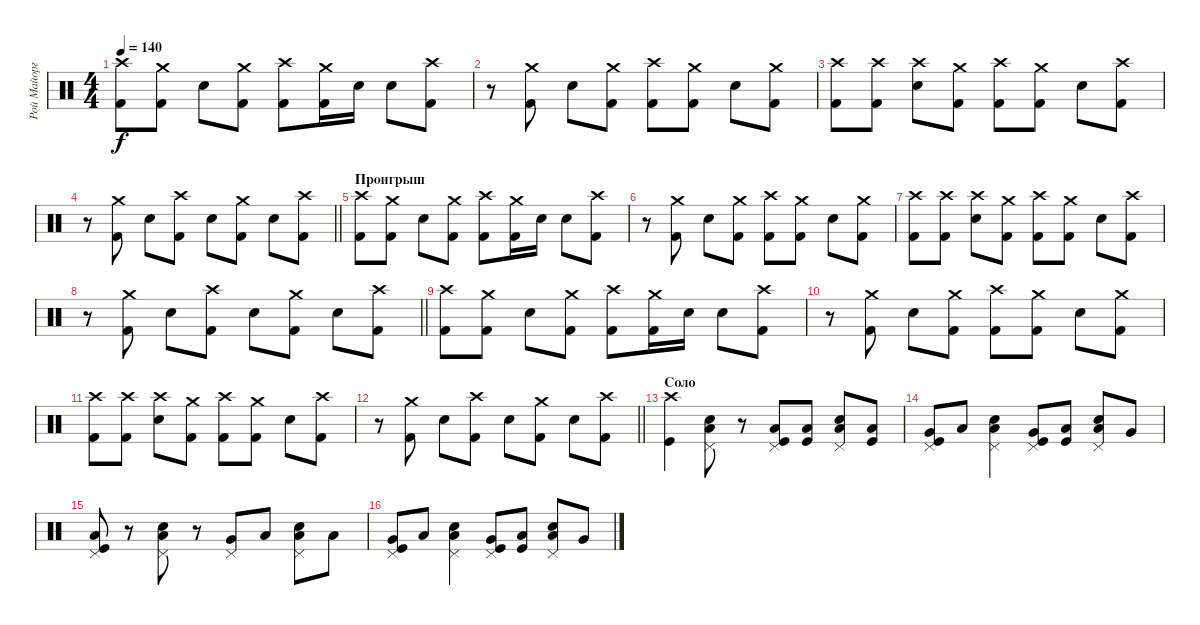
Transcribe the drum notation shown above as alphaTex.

\track ("Рой Майорга" "Рой Майорг") {instrument percussion}
\staff {score}
\articulation defaults
\ts (4 4)
\tempo 140
\clef neutral
\ks c
("Crash high (hit)" "Kick (hit) 2").8{dy f} ("Crash medium (hit)" "Kick (hit) 2").8 "Snare (hit) 2".8 ("Crash medium (hit)" "Kick (hit) 2").8 ("Crash high (hit)" "Kick (hit) 2").8 ("Crash medium (hit)" "Kick (hit) 2").16 "Snare (hit) 2".16 "Snare (hit) 2".8 ("Crash high (hit)" "Kick (hit) 2").8 |
r.8 ("Crash medium (hit)" "Kick (hit) 2").8 "Snare (hit) 2".8 ("Crash medium (hit)" "Kick (hit) 2").8 ("Crash high (hit)" "Kick (hit) 2").8 ("Crash medium (hit)" "Kick (hit) 2").8 "Snare (hit) 2".8 ("Crash medium (hit)" "Kick (hit) 2").8 |
("Crash high (hit)" "Kick (hit) 2").8 ("Crash high (hit)" "Kick (hit) 2").8 ("Crash high (hit)" "Snare (hit) 2").8 ("Crash medium (hit)" "Kick (hit) 2").8 ("Crash high (hit)" "Kick (hit) 2").8 ("Crash medium (hit)" "Kick (hit) 2").8 "Snare (hit) 2".8 ("Crash high (hit)" "Kick (hit) 2").8 |
\barLineRight lightlight
r.8 ("Crash medium (hit)" "Kick (hit) 2").8 "Snare (hit) 2".8 ("Crash high (hit)" "Kick (hit) 2").8 "Snare (hit) 2".8 ("Crash medium (hit)" "Kick (hit) 2").8 "Snare (hit) 2".8 ("Crash high (hit)" "Kick (hit) 2").8 |
\section ("" "Проигрыш")
("Crash high (hit)" "Kick (hit) 2").8 ("Crash medium (hit)" "Kick (hit) 2").8 "Snare (hit) 2".8 ("Crash medium (hit)" "Kick (hit) 2").8 ("Crash high (hit)" "Kick (hit) 2").8 ("Crash medium (hit)" "Kick (hit) 2").16 "Snare (hit) 2".16 "Snare (hit) 2".8 ("Crash high (hit)" "Kick (hit) 2").8 |
r.8 ("Crash medium (hit)" "Kick (hit) 2").8 "Snare (hit) 2".8 ("Crash medium (hit)" "Kick (hit) 2").8 ("Crash high (hit)" "Kick (hit) 2").8 ("Crash medium (hit)" "Kick (hit) 2").8 "Snare (hit) 2".8 ("Crash medium (hit)" "Kick (hit) 2").8 |
("Crash high (hit)" "Kick (hit) 2").8 ("Crash high (hit)" "Kick (hit) 2").8 ("Crash high (hit)" "Snare (hit) 2").8 ("Crash medium (hit)" "Kick (hit) 2").8 ("Crash high (hit)" "Kick (hit) 2").8 ("Crash medium (hit)" "Kick (hit) 2").8 "Snare (hit) 2".8 ("Crash high (hit)" "Kick (hit) 2").8 |
\barLineRight lightlight
r.8 ("Crash medium (hit)" "Kick (hit) 2").8 "Snare (hit) 2".8 ("Crash high (hit)" "Kick (hit) 2").8 "Snare (hit) 2".8 ("Crash medium (hit)" "Kick (hit) 2").8 "Snare (hit) 2".8 ("Crash high (hit)" "Kick (hit) 2").8 |
("Crash high (hit)" "Kick (hit) 2").8 ("Crash medium (hit)" "Kick (hit) 2").8 "Snare (hit) 2".8 ("Crash medium (hit)" "Kick (hit) 2").8 ("Crash high (hit)" "Kick (hit) 2").8 ("Crash medium (hit)" "Kick (hit) 2").16 "Snare (hit) 2".16 "Snare (hit) 2".8 ("Crash high (hit)" "Kick (hit) 2").8 |
r.8 ("Crash medium (hit)" "Kick (hit) 2").8 "Snare (hit) 2".8 ("Crash medium (hit)" "Kick (hit) 2").8 ("Crash high (hit)" "Kick (hit) 2").8 ("Crash medium (hit)" "Kick (hit) 2").8 "Snare (hit) 2".8 ("Crash medium (hit)" "Kick (hit) 2").8 |
("Crash high (hit)" "Kick (hit) 2").8 ("Crash high (hit)" "Kick (hit) 2").8 ("Crash high (hit)" "Snare (hit) 2").8 ("Crash medium (hit)" "Kick (hit) 2").8 ("Crash high (hit)" "Kick (hit) 2").8 ("Crash medium (hit)" "Kick (hit) 2").8 "Snare (hit) 2".8 ("Crash high (hit)" "Kick (hit) 2").8 |
\barLineRight lightlight
r.8 ("Crash medium (hit)" "Kick (hit) 2").8 "Snare (hit) 2".8 ("Crash high (hit)" "Kick (hit) 2").8 "Snare (hit) 2".8 ("Crash medium (hit)" "Kick (hit) 2").8 "Snare (hit) 2".8 ("Crash high (hit)" "Kick (hit) 2").8 |
\section ("" "Соло")
("Crash high (hit)" "Kick (hit)").4 ("Pedal Hi-Hat (hit)" "Low Tom (hit)" "Snare (hit) 2").8 r.8 ("Pedal Hi-Hat (hit)" "Low Tom (hit)" "Kick (hit)").8 ("Low Floor Tom (hit)" "Kick (hit)").8 ("Pedal Hi-Hat (hit)" "Low Tom (hit)" "Snare (hit) 2").8 ("Low Floor Tom (hit)" "Kick (hit)").8 |
("Pedal Hi-Hat (hit)" "Very Low Tom (hit)" "Kick (hit)").8 "Low Tom (hit)".8 ("Pedal Hi-Hat (hit)" "Low Tom (hit)" "Snare (hit) 2").4 ("Pedal Hi-Hat (hit)" "Very Low Tom (hit)" "Kick (hit)").8 ("Low Tom (hit)" "Kick (hit)").8 ("Pedal Hi-Hat (hit)" "Low Tom (hit)" "Snare (hit) 2").8 "Very Low Tom (hit)".8 |
("Pedal Hi-Hat (hit)" "Low Tom (hit)" "Kick (hit)").8 r.8 ("Pedal Hi-Hat (hit)" "Low Tom (hit)" "Snare (hit) 2").8 r.8 ("Pedal Hi-Hat (hit)" "Very Low Tom (hit)").8 "Low Tom (hit)".8 ("Pedal Hi-Hat (hit)" "Low Tom (hit)" "Snare (hit) 2").8 "Low Floor Tom (hit)".8 |
("Pedal Hi-Hat (hit)" "Very Low Tom (hit)" "Kick (hit)").8 "Low Tom (hit)".8 ("Pedal Hi-Hat (hit)" "Low Tom (hit)" "Snare (hit) 2").4 ("Pedal Hi-Hat (hit)" "Very Low Tom (hit)" "Kick (hit)").8 ("Low Tom (hit)" "Kick (hit)").8 ("Pedal Hi-Hat (hit)" "Low Tom (hit)" "Snare (hit) 2").8 "Very Low Tom (hit)".8
